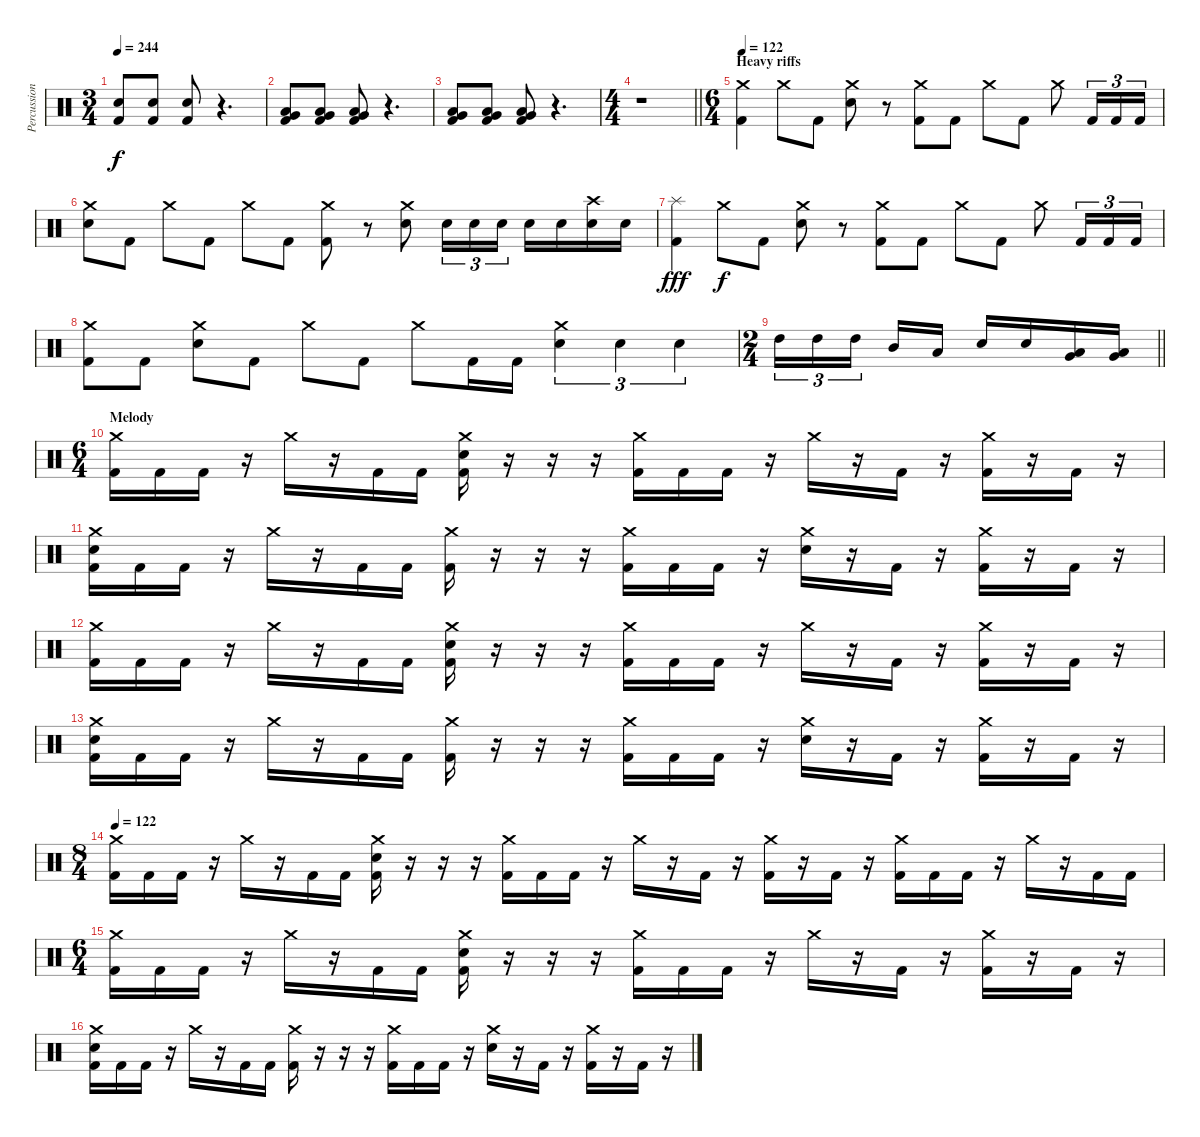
\track ("Percussion" "Percussion") {instrument percussion}
\staff {score}
\articulation defaults
\ts (3 4)
\tempo 244
\clef neutral
\ks c
("Electric Snare (hit)" "Kick (hit) 2").8{dy f} ("Electric Snare (hit)" "Kick (hit) 2").8 ("Electric Snare (hit)" "Kick (hit) 2").8 r.4{d} |
("Low Tom (hit)" "Very Low Tom (hit)" "Kick (hit) 2").8 ("Low Tom (hit)" "Very Low Tom (hit)" "Kick (hit) 2").8 ("Low Tom (hit)" "Very Low Tom (hit)" "Kick (hit) 2").8 r.4{d} |
("Low Tom (hit)" "Very Low Tom (hit)" "Kick (hit) 2").8 ("Low Tom (hit)" "Very Low Tom (hit)" "Kick (hit) 2").8 ("Low Tom (hit)" "Very Low Tom (hit)" "Kick (hit) 2").8 r.4{d} |
\ts (4 4)
\barLineRight lightlight
r.1 |
\ts (6 4)
\section ("" "Heavy riffs")
\tempo 122
("Crash medium (hit)" "Kick (hit) 2").4 "Crash medium (hit)".8 "Kick (hit) 2".8 ("Crash medium (hit)" "Electric Snare (hit)").8 r.8 ("Crash medium (hit)" "Kick (hit) 2").8 "Kick (hit) 2".8 "Crash medium (hit)".8 "Kick (hit) 2".8 "Crash medium (hit)".8 "Kick (hit) 2".16{tu (3 2)} "Kick (hit) 2".16{tu (3 2)} "Kick (hit) 2".16{tu (3 2)} |
("Crash medium (hit)" "Electric Snare (hit)").8 "Kick (hit) 2".8 "Crash medium (hit)".8 "Kick (hit) 2".8 "Crash medium (hit)".8 "Kick (hit) 2".8 ("Crash medium (hit)" "Kick (hit) 2").8 r.8 ("Crash medium (hit)" "Electric Snare (hit)").8 "Electric Snare (hit)".16{tu (3 2)} "Electric Snare (hit)".16{tu (3 2)} "Electric Snare (hit)".16{tu (3 2) beam splitsecondary} "Electric Snare (hit)".16 "Electric Snare (hit)".16 ("Crash high (hit)" "Electric Snare (hit)").16 "Electric Snare (hit)".16 |
("Splash (hit)" "Kick (hit) 2").4{dy fff} "Crash medium (hit)".8{dy f} "Kick (hit) 2".8 ("Crash medium (hit)" "Electric Snare (hit)").8 r.8 ("Crash medium (hit)" "Kick (hit) 2").8 "Kick (hit) 2".8 "Crash medium (hit)".8 "Kick (hit) 2".8 "Crash medium (hit)".8 "Kick (hit) 2".16{tu (3 2)} "Kick (hit) 2".16{tu (3 2)} "Kick (hit) 2".16{tu (3 2)} |
("Crash medium (hit)" "Kick (hit) 2").8 "Kick (hit) 2".8 ("Crash medium (hit)" "Electric Snare (hit)").8 "Kick (hit) 2".8 "Crash medium (hit)".8 "Kick (hit) 2".8 "Crash medium (hit)".8 "Kick (hit) 2".16 "Kick (hit) 2".16 ("Crash medium (hit)" "Electric Snare (hit)").4{tu (3 2)} "Electric Snare (hit)".4{tu (3 2)} "Electric Snare (hit)".4{tu (3 2)} |
\ts (2 4)
\barLineRight lightlight "High Tom (hit)".16{tu (3 2) balance 16} "High Tom (hit)".16{tu (3 2) balance 0} "High Tom (hit)".16{tu (3 2) beam splitsecondary} "Mid Tom (hit)".16 "Low Tom (hit)".16 "Electric Snare (hit)".16 "Electric Snare (hit)".16
("Low Tom (hit)" "Very Low Tom (hit)").16 ("Low Tom (hit)" "Very Low Tom (hit)").16 |
\ts (6 4)
\section ("" "Melody")
("Crash medium (hit)" "Kick (hit) 2").16{balance 8} "Kick (hit) 2".16 "Kick (hit) 2".16 r.16 "Crash medium (hit)".16 r.16 "Kick (hit) 2".16 "Kick (hit) 2".16 ("Crash medium (hit)" "Electric Snare (hit)" "Kick (hit) 2").16 r.16 r.16 r.16 ("Crash medium (hit)" "Kick (hit) 2").16 "Kick (hit) 2".16 "Kick (hit) 2".16 r.16 "Crash medium (hit)".16 r.16 "Kick (hit) 2".16 r.16 ("Crash medium (hit)" "Kick (hit) 2").16 r.16 "Kick (hit) 2".16 r.16 |
("Crash medium (hit)" "Electric Snare (hit)" "Kick (hit) 2").16 "Kick (hit) 2".16 "Kick (hit) 2".16 r.16 "Crash medium (hit)".16 r.16 "Kick (hit) 2".16 "Kick (hit) 2".16 ("Crash medium (hit)" "Kick (hit) 2").16 r.16 r.16 r.16 ("Crash medium (hit)" "Kick (hit) 2").16 "Kick (hit) 2".16 "Kick (hit) 2".16 r.16 ("Crash medium (hit)" "Electric Snare (hit)").16 r.16 "Kick (hit) 2".16 r.16 ("Crash medium (hit)" "Kick (hit) 2").16 r.16 "Kick (hit) 2".16 r.16 |
("Crash medium (hit)" "Kick (hit) 2").16 "Kick (hit) 2".16 "Kick (hit) 2".16 r.16 "Crash medium (hit)".16 r.16 "Kick (hit) 2".16 "Kick (hit) 2".16 ("Crash medium (hit)" "Electric Snare (hit)" "Kick (hit) 2").16 r.16 r.16 r.16 ("Crash medium (hit)" "Kick (hit) 2").16 "Kick (hit) 2".16 "Kick (hit) 2".16 r.16 "Crash medium (hit)".16 r.16 "Kick (hit) 2".16 r.16 ("Crash medium (hit)" "Kick (hit) 2").16 r.16 "Kick (hit) 2".16 r.16 |
("Crash medium (hit)" "Electric Snare (hit)" "Kick (hit) 2").16 "Kick (hit) 2".16 "Kick (hit) 2".16 r.16 "Crash medium (hit)".16 r.16 "Kick (hit) 2".16 "Kick (hit) 2".16 ("Crash medium (hit)" "Kick (hit) 2").16 r.16 r.16 r.16 ("Crash medium (hit)" "Kick (hit) 2").16 "Kick (hit) 2".16 "Kick (hit) 2".16 r.16 ("Crash medium (hit)" "Electric Snare (hit)").16 r.16 "Kick (hit) 2".16 r.16 ("Crash medium (hit)" "Kick (hit) 2").16 r.16 "Kick (hit) 2".16 r.16 |
\ts (8 4)
\tempo 122
("Crash medium (hit)" "Kick (hit) 2").16 "Kick (hit) 2".16 "Kick (hit) 2".16 r.16 "Crash medium (hit)".16 r.16 "Kick (hit) 2".16 "Kick (hit) 2".16 ("Crash medium (hit)" "Electric Snare (hit)" "Kick (hit) 2").16 r.16 r.16 r.16 ("Crash medium (hit)" "Kick (hit) 2").16 "Kick (hit) 2".16 "Kick (hit) 2".16 r.16 "Crash medium (hit)".16 r.16 "Kick (hit) 2".16 r.16 ("Crash medium (hit)" "Kick (hit) 2").16 r.16 "Kick (hit) 2".16 r.16 ("Crash medium (hit)" "Kick (hit) 2").16 "Kick (hit) 2".16 "Kick (hit) 2".16 r.16 "Crash medium (hit)".16 r.16 "Kick (hit) 2".16 "Kick (hit) 2".16 |
\ts (6 4)
("Crash medium (hit)" "Kick (hit) 2").16 "Kick (hit) 2".16 "Kick (hit) 2".16 r.16 "Crash medium (hit)".16 r.16 "Kick (hit) 2".16 "Kick (hit) 2".16 ("Crash medium (hit)" "Electric Snare (hit)" "Kick (hit) 2").16 r.16 r.16 r.16 ("Crash medium (hit)" "Kick (hit) 2").16 "Kick (hit) 2".16 "Kick (hit) 2".16 r.16 "Crash medium (hit)".16 r.16 "Kick (hit) 2".16 r.16 ("Crash medium (hit)" "Kick (hit) 2").16 r.16 "Kick (hit) 2".16 r.16 |
("Crash medium (hit)" "Electric Snare (hit)" "Kick (hit) 2").16 "Kick (hit) 2".16 "Kick (hit) 2".16 r.16 "Crash medium (hit)".16 r.16 "Kick (hit) 2".16 "Kick (hit) 2".16 ("Crash medium (hit)" "Kick (hit) 2").16 r.16 r.16 r.16 ("Crash medium (hit)" "Kick (hit) 2").16 "Kick (hit) 2".16 "Kick (hit) 2".16 r.16 ("Crash medium (hit)" "Electric Snare (hit)").16 r.16 "Kick (hit) 2".16 r.16 ("Crash medium (hit)" "Kick (hit) 2").16 r.16 "Kick (hit) 2".16 r.16
